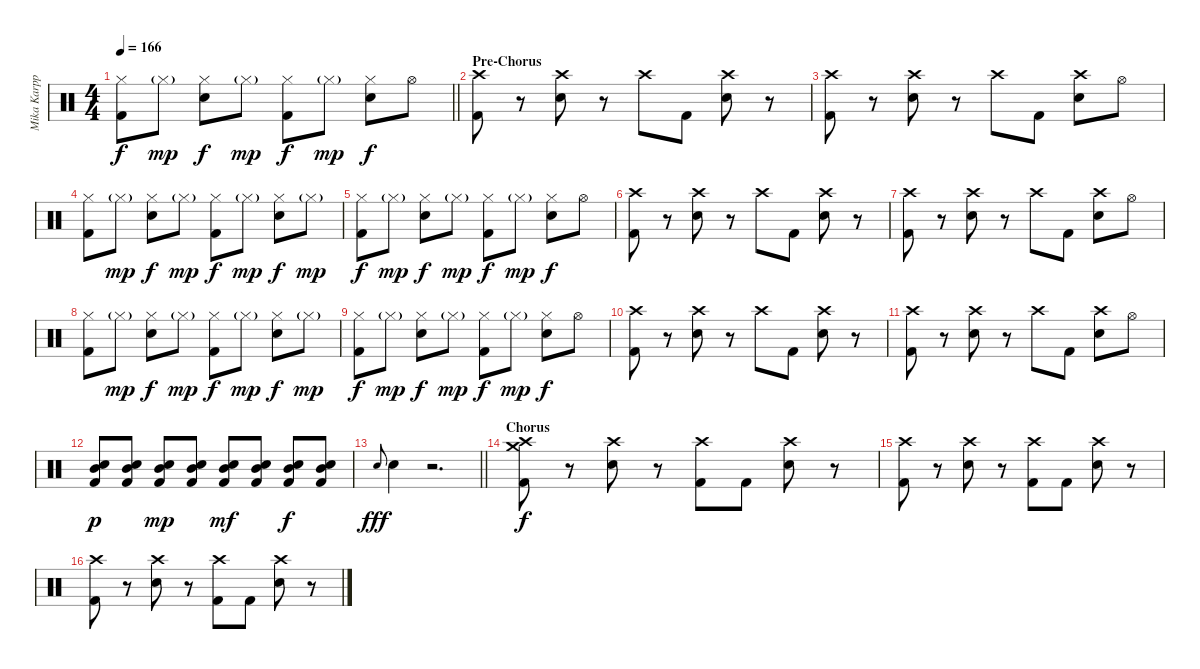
\track ("Mika Karppinen" "Mika Karpp") {instrument percussion}
\staff {score}
\articulation defaults
\ts (4 4)
\tempo 166
\clef neutral
\barLineRight lightlight
\ks c
("Hi-Hat (closed)" "Kick (hit) 2").8{dy f} "Hi-Hat (closed)"{g}.8{dy mp} ("Hi-Hat (closed)" "Snare (hit) 2").8{dy f} "Hi-Hat (closed)"{g}.8{dy mp} ("Hi-Hat (closed)" "Kick (hit) 2").8{dy f} "Hi-Hat (closed)"{g}.8{dy mp} ("Hi-Hat (closed)" "Snare (hit) 2").8{dy f} "Hi-Hat (open)".8 |
\section ("" "Pre-Chorus")
("Crash high (hit)" "Kick (hit) 2").8 r.8 ("Crash high (hit)" "Snare (hit) 2").8 r.8 "Crash high (hit)".8 "Kick (hit) 2".8 ("Crash high (hit)" "Snare (hit) 2").8 r.8 |
("Crash high (hit)" "Kick (hit) 2").8 r.8 ("Crash high (hit)" "Snare (hit) 2").8 r.8 "Crash high (hit)".8 "Kick (hit) 2".8 ("Crash high (hit)" "Snare (hit) 2").8 "Hi-Hat (open)".8 |
("Hi-Hat (closed)" "Kick (hit) 2").8 "Hi-Hat (closed)"{g}.8{dy mp} ("Hi-Hat (closed)" "Snare (hit) 2").8{dy f} "Hi-Hat (closed)"{g}.8{dy mp} ("Hi-Hat (closed)" "Kick (hit) 2").8{dy f} "Hi-Hat (closed)"{g}.8{dy mp} ("Hi-Hat (closed)" "Snare (hit) 2").8{dy f} "Hi-Hat (closed)"{g}.8{dy mp} |
("Hi-Hat (closed)" "Kick (hit) 2").8{dy f} "Hi-Hat (closed)"{g}.8{dy mp} ("Hi-Hat (closed)" "Snare (hit) 2").8{dy f} "Hi-Hat (closed)"{g}.8{dy mp} ("Hi-Hat (closed)" "Kick (hit) 2").8{dy f} "Hi-Hat (closed)"{g}.8{dy mp} ("Hi-Hat (closed)" "Snare (hit) 2").8{dy f} "Hi-Hat (open)".8 |
("Crash high (hit)" "Kick (hit) 2").8 r.8 ("Crash high (hit)" "Snare (hit) 2").8 r.8 "Crash high (hit)".8 "Kick (hit) 2".8 ("Crash high (hit)" "Snare (hit) 2").8 r.8 |
("Crash high (hit)" "Kick (hit) 2").8 r.8 ("Crash high (hit)" "Snare (hit) 2").8 r.8 "Crash high (hit)".8 "Kick (hit) 2".8 ("Crash high (hit)" "Snare (hit) 2").8 "Hi-Hat (open)".8 |
("Hi-Hat (closed)" "Kick (hit) 2").8 "Hi-Hat (closed)"{g}.8{dy mp} ("Hi-Hat (closed)" "Snare (hit) 2").8{dy f} "Hi-Hat (closed)"{g}.8{dy mp} ("Hi-Hat (closed)" "Kick (hit) 2").8{dy f} "Hi-Hat (closed)"{g}.8{dy mp} ("Hi-Hat (closed)" "Snare (hit) 2").8{dy f} "Hi-Hat (closed)"{g}.8{dy mp} |
("Hi-Hat (closed)" "Kick (hit) 2").8{dy f} "Hi-Hat (closed)"{g}.8{dy mp} ("Hi-Hat (closed)" "Snare (hit) 2").8{dy f} "Hi-Hat (closed)"{g}.8{dy mp} ("Hi-Hat (closed)" "Kick (hit) 2").8{dy f} "Hi-Hat (closed)"{g}.8{dy mp} ("Hi-Hat (closed)" "Snare (hit) 2").8{dy f} "Hi-Hat (open)".8 |
("Crash high (hit)" "Kick (hit) 2").8 r.8 ("Crash high (hit)" "Snare (hit) 2").8 r.8 "Crash high (hit)".8 "Kick (hit) 2".8 ("Crash high (hit)" "Snare (hit) 2").8 r.8 |
("Crash high (hit)" "Kick (hit) 2").8 r.8 ("Crash high (hit)" "Snare (hit) 2").8 r.8 "Crash high (hit)".8 "Kick (hit) 2".8 ("Crash high (hit)" "Snare (hit) 2").8 "Hi-Hat (open)".8 |
("Mid Tom (hit)" "Snare (hit) 2" "Kick (hit) 2").8{dy p} ("Mid Tom (hit)" "Snare (hit) 2" "Kick (hit) 2").8 ("Mid Tom (hit)" "Snare (hit) 2" "Kick (hit) 2").8{dy mp} ("Mid Tom (hit)" "Snare (hit) 2" "Kick (hit) 2").8 ("Mid Tom (hit)" "Snare (hit) 2" "Kick (hit) 2").8{dy mf} ("Mid Tom (hit)" "Snare (hit) 2" "Kick (hit) 2").8 ("Mid Tom (hit)" "Snare (hit) 2" "Kick (hit) 2").8{dy f} ("Mid Tom (hit)" "Snare (hit) 2" "Kick (hit) 2").8 |
\barLineRight lightlight "Snare (hit) 2".8{gr onbeat dy fff} "Snare (hit) 2".4
r.2{d} |
\section ("" "Chorus")
("Crash medium (hit)" "Crash high (hit)" "Kick (hit) 2").8{dy f} r.8 ("Crash high (hit)" "Snare (hit) 2").8 r.8 ("Crash high (hit)" "Kick (hit) 2").8 "Kick (hit) 2".8 ("Crash high (hit)" "Snare (hit) 2").8 r.8 |
("Crash high (hit)" "Kick (hit) 2").8 r.8 ("Crash high (hit)" "Snare (hit) 2").8 r.8 ("Crash high (hit)" "Kick (hit) 2").8 "Kick (hit) 2".8 ("Crash high (hit)" "Snare (hit) 2").8 r.8 |
("Crash high (hit)" "Kick (hit) 2").8 r.8 ("Crash high (hit)" "Snare (hit) 2").8 r.8 ("Crash high (hit)" "Kick (hit) 2").8 "Kick (hit) 2".8 ("Crash high (hit)" "Snare (hit) 2").8 r.8
